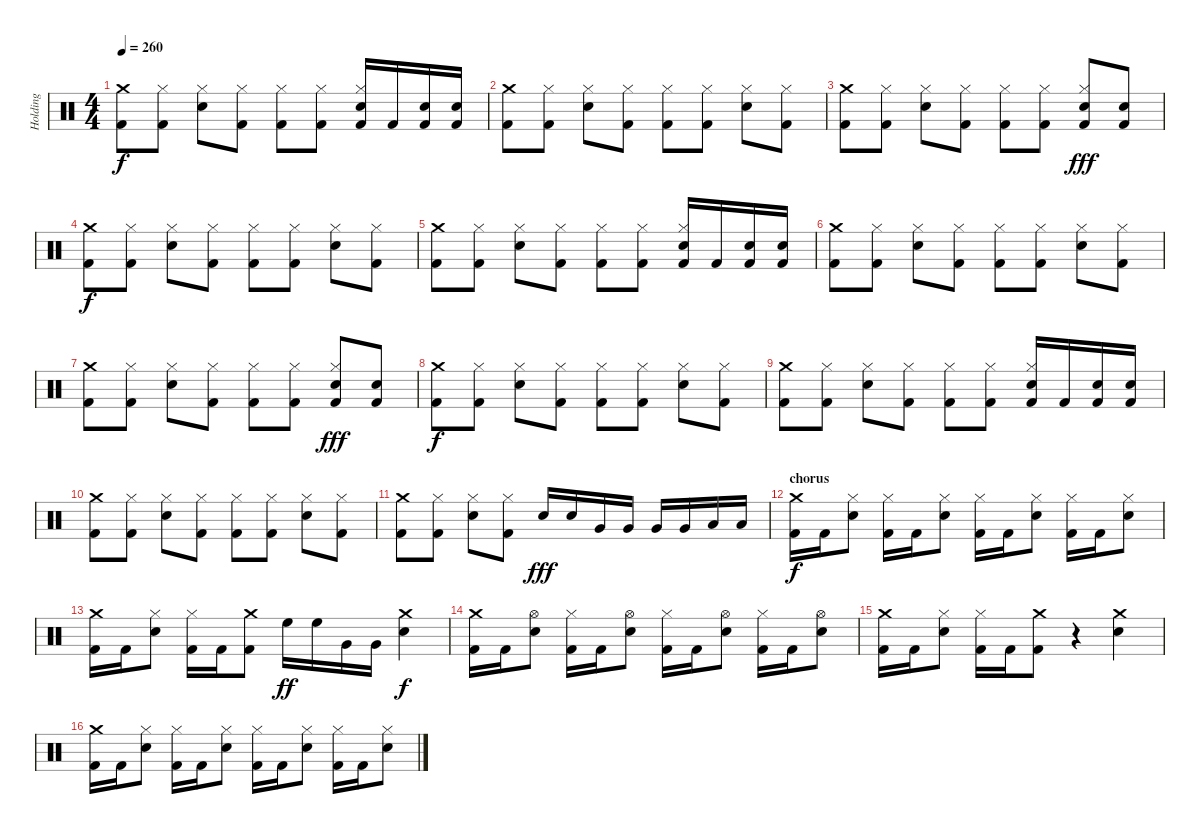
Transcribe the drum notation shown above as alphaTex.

\track ("Holding" "Holding") {instrument percussion}
\staff {score}
\articulation defaults
\ts (4 4)
\tempo 260
\clef neutral
\ks c
("Crash medium (hit)" "Kick (hit) 2").8{dy f} ("Hi-Hat (closed)" "Kick (hit) 2").8 ("Hi-Hat (closed)" "Electric Snare (hit)").8 ("Hi-Hat (closed)" "Kick (hit) 2").8 ("Hi-Hat (closed)" "Kick (hit) 2").8 ("Hi-Hat (closed)" "Kick (hit) 2").8 ("Hi-Hat (closed)" "Electric Snare (hit)" "Kick (hit) 2").16 "Kick (hit) 2".16 ("Electric Snare (hit)" "Kick (hit) 2").16 ("Electric Snare (hit)" "Kick (hit) 2").16 |
("Crash medium (hit)" "Kick (hit) 2").8 ("Hi-Hat (closed)" "Kick (hit) 2").8 ("Hi-Hat (closed)" "Electric Snare (hit)").8 ("Hi-Hat (closed)" "Kick (hit) 2").8 ("Hi-Hat (closed)" "Kick (hit) 2").8 ("Hi-Hat (closed)" "Kick (hit) 2").8 ("Hi-Hat (closed)" "Electric Snare (hit)").8 ("Hi-Hat (closed)" "Kick (hit) 2").8 |
("Crash medium (hit)" "Kick (hit) 2").8 ("Hi-Hat (closed)" "Kick (hit) 2").8 ("Hi-Hat (closed)" "Electric Snare (hit)").8 ("Hi-Hat (closed)" "Kick (hit) 2").8 ("Hi-Hat (closed)" "Kick (hit) 2").8 ("Hi-Hat (closed)" "Kick (hit) 2").8 ("Hi-Hat (closed)" "Electric Snare (hit)" "Kick (hit) 2").8{dy fff} ("Electric Snare (hit)" "Kick (hit) 2").8 |
("Crash medium (hit)" "Kick (hit) 2").8{dy f} ("Hi-Hat (closed)" "Kick (hit) 2").8 ("Hi-Hat (closed)" "Electric Snare (hit)").8 ("Hi-Hat (closed)" "Kick (hit) 2").8 ("Hi-Hat (closed)" "Kick (hit) 2").8 ("Hi-Hat (closed)" "Kick (hit) 2").8 ("Hi-Hat (closed)" "Electric Snare (hit)").8 ("Hi-Hat (closed)" "Kick (hit) 2").8 |
("Crash medium (hit)" "Kick (hit) 2").8 ("Hi-Hat (closed)" "Kick (hit) 2").8 ("Hi-Hat (closed)" "Electric Snare (hit)").8 ("Hi-Hat (closed)" "Kick (hit) 2").8 ("Hi-Hat (closed)" "Kick (hit) 2").8 ("Hi-Hat (closed)" "Kick (hit) 2").8 ("Hi-Hat (closed)" "Electric Snare (hit)" "Kick (hit) 2").16 "Kick (hit) 2".16 ("Electric Snare (hit)" "Kick (hit) 2").16 ("Electric Snare (hit)" "Kick (hit) 2").16 |
("Crash medium (hit)" "Kick (hit) 2").8 ("Hi-Hat (closed)" "Kick (hit) 2").8 ("Hi-Hat (closed)" "Electric Snare (hit)").8 ("Hi-Hat (closed)" "Kick (hit) 2").8 ("Hi-Hat (closed)" "Kick (hit) 2").8 ("Hi-Hat (closed)" "Kick (hit) 2").8 ("Hi-Hat (closed)" "Electric Snare (hit)").8 ("Hi-Hat (closed)" "Kick (hit) 2").8 |
("Crash medium (hit)" "Kick (hit) 2").8 ("Hi-Hat (closed)" "Kick (hit) 2").8 ("Hi-Hat (closed)" "Electric Snare (hit)").8 ("Hi-Hat (closed)" "Kick (hit) 2").8 ("Hi-Hat (closed)" "Kick (hit) 2").8 ("Hi-Hat (closed)" "Kick (hit) 2").8 ("Hi-Hat (closed)" "Electric Snare (hit)" "Kick (hit) 2").8{dy fff} ("Electric Snare (hit)" "Kick (hit) 2").8 |
("Crash medium (hit)" "Kick (hit) 2").8{dy f} ("Hi-Hat (closed)" "Kick (hit) 2").8 ("Hi-Hat (closed)" "Electric Snare (hit)").8 ("Hi-Hat (closed)" "Kick (hit) 2").8 ("Hi-Hat (closed)" "Kick (hit) 2").8 ("Hi-Hat (closed)" "Kick (hit) 2").8 ("Hi-Hat (closed)" "Electric Snare (hit)").8 ("Hi-Hat (closed)" "Kick (hit) 2").8 |
("Crash medium (hit)" "Kick (hit) 2").8 ("Hi-Hat (closed)" "Kick (hit) 2").8 ("Hi-Hat (closed)" "Electric Snare (hit)").8 ("Hi-Hat (closed)" "Kick (hit) 2").8 ("Hi-Hat (closed)" "Kick (hit) 2").8 ("Hi-Hat (closed)" "Kick (hit) 2").8 ("Hi-Hat (closed)" "Electric Snare (hit)" "Kick (hit) 2").16 "Kick (hit) 2".16 ("Electric Snare (hit)" "Kick (hit) 2").16 ("Electric Snare (hit)" "Kick (hit) 2").16 |
("Crash medium (hit)" "Kick (hit) 2").8 ("Hi-Hat (closed)" "Kick (hit) 2").8 ("Hi-Hat (closed)" "Electric Snare (hit)").8 ("Hi-Hat (closed)" "Kick (hit) 2").8 ("Hi-Hat (closed)" "Kick (hit) 2").8 ("Hi-Hat (closed)" "Kick (hit) 2").8 ("Hi-Hat (closed)" "Electric Snare (hit)").8 ("Hi-Hat (closed)" "Kick (hit) 2").8 |
("Crash medium (hit)" "Kick (hit) 2").8 ("Hi-Hat (closed)" "Kick (hit) 2").8 ("Hi-Hat (closed)" "Electric Snare (hit)").8 ("Hi-Hat (closed)" "Kick (hit) 2").8 "Electric Snare (hit)".16{dy fff} "Electric Snare (hit)".16 "Very Low Tom (hit)".16 "Very Low Tom (hit)".16 "Very Low Tom (hit)".16 "Very Low Tom (hit)".16 "Low Tom (hit)".16 "Low Tom (hit)".16 |
\section ("" "chorus")
("Crash medium (hit)" "Kick (hit) 2").16{dy f} "Kick (hit) 2".16 ("Hi-Hat (closed)" "Electric Snare (hit)").8 ("Hi-Hat (closed)" "Kick (hit) 2").16 "Kick (hit) 2".16 ("Hi-Hat (closed)" "Electric Snare (hit)").8 ("Hi-Hat (closed)" "Kick (hit) 2").16 "Kick (hit) 2".16 ("Hi-Hat (closed)" "Electric Snare (hit)").8 ("Hi-Hat (closed)" "Kick (hit) 2").16 "Kick (hit) 2".16 ("Hi-Hat (closed)" "Electric Snare (hit)").8 |
("Crash medium (hit)" "Kick (hit) 2").16 "Kick (hit) 2".16 ("Hi-Hat (closed)" "Electric Snare (hit)").8 ("Hi-Hat (closed)" "Kick (hit) 2").16 "Kick (hit) 2".16 ("Crash medium (hit)" "Kick (hit) 2").8 "High Floor Tom (hit)".16{dy ff} "High Floor Tom (hit)".16 "Very Low Tom (hit)".16 "Very Low Tom (hit)".16 ("Crash medium (hit)" "Electric Snare (hit)").4{dy f} |
("Crash medium (hit)" "Kick (hit) 2").16 "Kick (hit) 2".16 ("Hi-Hat (open)" "Electric Snare (hit)").8 ("Hi-Hat (closed)" "Kick (hit) 2").16 "Kick (hit) 2".16 ("Hi-Hat (open)" "Electric Snare (hit)").8 ("Hi-Hat (closed)" "Kick (hit) 2").16 "Kick (hit) 2".16 ("Hi-Hat (open)" "Electric Snare (hit)").8 ("Hi-Hat (closed)" "Kick (hit) 2").16 "Kick (hit) 2".16 ("Hi-Hat (open)" "Electric Snare (hit)").8 |
("Crash medium (hit)" "Kick (hit) 2").16 "Kick (hit) 2".16 ("Hi-Hat (closed)" "Electric Snare (hit)").8 ("Hi-Hat (closed)" "Kick (hit) 2").16 "Kick (hit) 2".16 ("Crash medium (hit)" "Kick (hit) 2").8 r.4 ("Crash medium (hit)" "Electric Snare (hit)").4 |
("Crash medium (hit)" "Kick (hit) 2").16 "Kick (hit) 2".16 ("Hi-Hat (closed)" "Electric Snare (hit)").8 ("Hi-Hat (closed)" "Kick (hit) 2").16 "Kick (hit) 2".16 ("Hi-Hat (closed)" "Electric Snare (hit)").8 ("Hi-Hat (closed)" "Kick (hit) 2").16 "Kick (hit) 2".16 ("Hi-Hat (closed)" "Electric Snare (hit)").8 ("Hi-Hat (closed)" "Kick (hit) 2").16 "Kick (hit) 2".16 ("Hi-Hat (closed)" "Electric Snare (hit)").8
